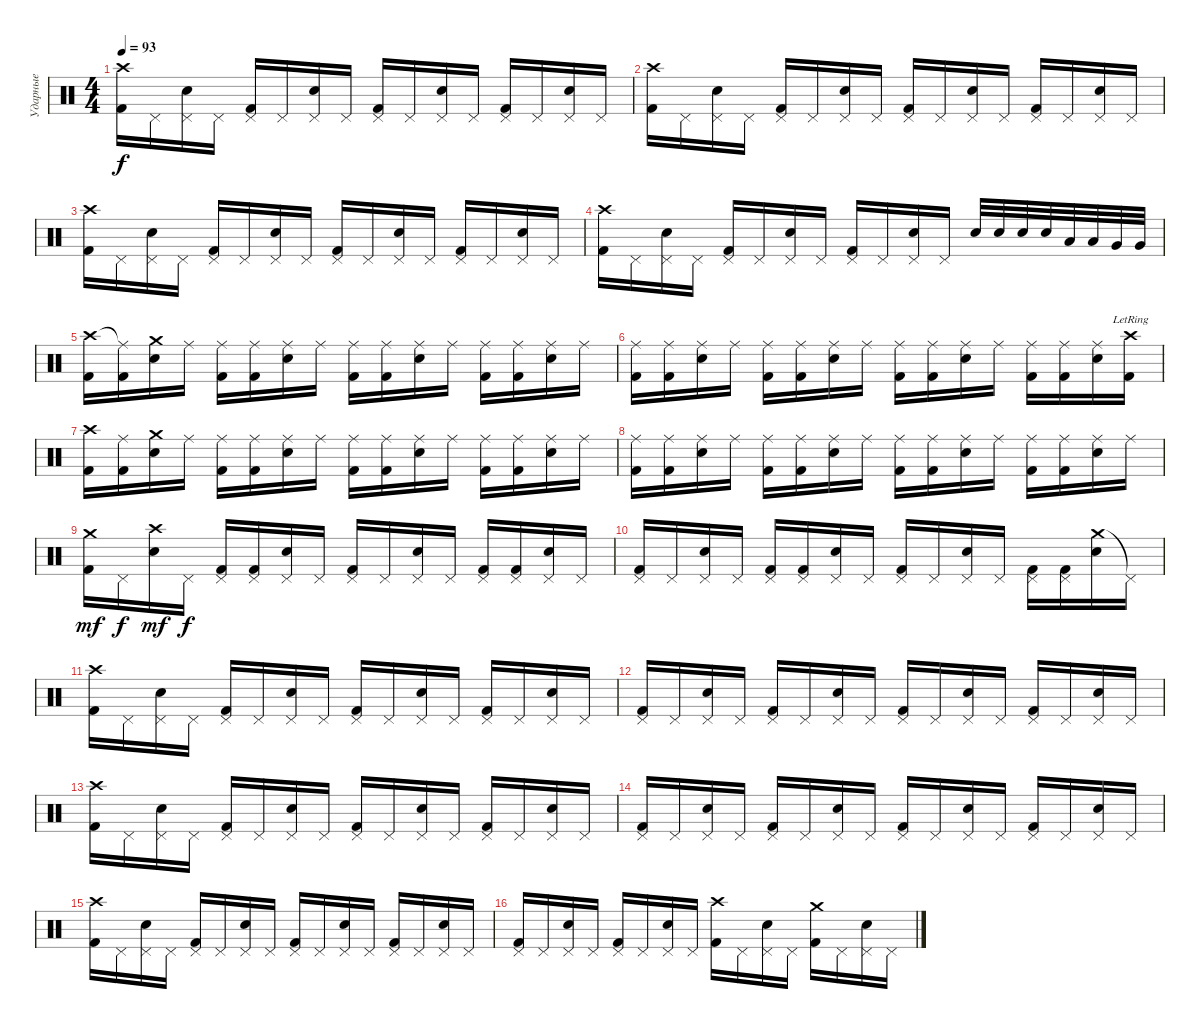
\track ("Ударные" "Ударные") {instrument percussion}
\staff {score}
\articulation defaults
\ts (4 4)
\tempo 93
\clef neutral
\ks c
("Crash high (hit)" "Kick (hit) 2").16{dy f} "Pedal Hi-Hat (hit)".16 ("Pedal Hi-Hat (hit)" "Electric Snare (hit)").16 "Pedal Hi-Hat (hit)".16 ("Pedal Hi-Hat (hit)" "Kick (hit) 2").16 "Pedal Hi-Hat (hit)".16 ("Pedal Hi-Hat (hit)" "Electric Snare (hit)").16 "Pedal Hi-Hat (hit)".16 ("Pedal Hi-Hat (hit)" "Kick (hit) 2").16 "Pedal Hi-Hat (hit)".16 ("Pedal Hi-Hat (hit)" "Electric Snare (hit)").16 "Pedal Hi-Hat (hit)".16 ("Pedal Hi-Hat (hit)" "Kick (hit) 2").16 "Pedal Hi-Hat (hit)".16 ("Pedal Hi-Hat (hit)" "Electric Snare (hit)").16 "Pedal Hi-Hat (hit)".16 |
("Crash high (hit)" "Kick (hit) 2").16 "Pedal Hi-Hat (hit)".16 ("Pedal Hi-Hat (hit)" "Electric Snare (hit)").16 "Pedal Hi-Hat (hit)".16 ("Pedal Hi-Hat (hit)" "Kick (hit) 2").16 "Pedal Hi-Hat (hit)".16 ("Pedal Hi-Hat (hit)" "Electric Snare (hit)").16 "Pedal Hi-Hat (hit)".16 ("Pedal Hi-Hat (hit)" "Kick (hit) 2").16 "Pedal Hi-Hat (hit)".16 ("Pedal Hi-Hat (hit)" "Electric Snare (hit)").16 "Pedal Hi-Hat (hit)".16 ("Pedal Hi-Hat (hit)" "Kick (hit) 2").16 "Pedal Hi-Hat (hit)".16 ("Pedal Hi-Hat (hit)" "Electric Snare (hit)").16 "Pedal Hi-Hat (hit)".16 |
("Crash high (hit)" "Kick (hit) 2").16 "Pedal Hi-Hat (hit)".16 ("Pedal Hi-Hat (hit)" "Electric Snare (hit)").16 "Pedal Hi-Hat (hit)".16 ("Pedal Hi-Hat (hit)" "Kick (hit) 2").16 "Pedal Hi-Hat (hit)".16 ("Pedal Hi-Hat (hit)" "Electric Snare (hit)").16 "Pedal Hi-Hat (hit)".16 ("Pedal Hi-Hat (hit)" "Kick (hit) 2").16 "Pedal Hi-Hat (hit)".16 ("Pedal Hi-Hat (hit)" "Electric Snare (hit)").16 "Pedal Hi-Hat (hit)".16 ("Pedal Hi-Hat (hit)" "Kick (hit) 2").16 "Pedal Hi-Hat (hit)".16 ("Pedal Hi-Hat (hit)" "Electric Snare (hit)").16 "Pedal Hi-Hat (hit)".16 |
("Crash high (hit)" "Kick (hit) 2").16 "Pedal Hi-Hat (hit)".16 ("Pedal Hi-Hat (hit)" "Electric Snare (hit)").16 "Pedal Hi-Hat (hit)".16 ("Pedal Hi-Hat (hit)" "Kick (hit) 2").16 "Pedal Hi-Hat (hit)".16 ("Pedal Hi-Hat (hit)" "Electric Snare (hit)").16 "Pedal Hi-Hat (hit)".16 ("Pedal Hi-Hat (hit)" "Kick (hit) 2").16 "Pedal Hi-Hat (hit)".16 ("Pedal Hi-Hat (hit)" "Electric Snare (hit)").16 "Pedal Hi-Hat (hit)".16 "Electric Snare (hit)".32 "Electric Snare (hit)".32 "Electric Snare (hit)".32 "Electric Snare (hit)".32 "Low Tom (hit)".32 "Low Tom (hit)".32 "Very Low Tom (hit)".32 "Very Low Tom (hit)".32 |
("Crash high (hit)" "Kick (hit) 2").16 ("Ride (middle)"{t} "Kick (hit) 2").16 ("Crash medium (hit)" "Electric Snare (hit)").16 "Ride (middle)".16 ("Ride (middle)" "Kick (hit) 2").16 ("Ride (middle)" "Kick (hit) 2").16 ("Ride (middle)" "Electric Snare (hit)").16 "Ride (middle)".16 ("Ride (middle)" "Kick (hit) 2").16 ("Ride (middle)" "Kick (hit) 2").16 ("Ride (middle)" "Electric Snare (hit)").16 "Ride (middle)".16 ("Ride (middle)" "Kick (hit) 2").16 ("Ride (middle)" "Kick (hit) 2").16 ("Ride (middle)" "Electric Snare (hit)").16 "Ride (middle)".16 |
("Ride (middle)" "Kick (hit) 2").16 ("Ride (middle)" "Kick (hit) 2").16 ("Ride (middle)" "Electric Snare (hit)").16 "Ride (middle)".16 ("Ride (middle)" "Kick (hit) 2").16 ("Ride (middle)" "Kick (hit) 2").16 ("Ride (middle)" "Electric Snare (hit)").16 "Ride (middle)".16 ("Ride (middle)" "Kick (hit) 2").16 ("Ride (middle)" "Kick (hit) 2").16 ("Ride (middle)" "Electric Snare (hit)").16 "Ride (middle)".16 ("Ride (middle)" "Kick (hit) 2").16 ("Ride (middle)" "Kick (hit) 2").16 ("Ride (middle)" "Electric Snare (hit)").16 ("Crash high (hit)"{lr} "Kick (hit) 2").16 |
("Crash high (hit)" "Kick (hit) 2").16 ("Ride (middle)" "Kick (hit) 2").16 ("Crash medium (hit)" "Electric Snare (hit)").16 "Ride (middle)".16 ("Ride (middle)" "Kick (hit) 2").16 ("Ride (middle)" "Kick (hit) 2").16 ("Ride (middle)" "Electric Snare (hit)").16 "Ride (middle)".16 ("Ride (middle)" "Kick (hit) 2").16 ("Ride (middle)" "Kick (hit) 2").16 ("Ride (middle)" "Electric Snare (hit)").16 "Ride (middle)".16 ("Ride (middle)" "Kick (hit) 2").16 ("Ride (middle)" "Kick (hit) 2").16 ("Ride (middle)" "Electric Snare (hit)").16 "Ride (middle)".16 |
("Ride (middle)" "Kick (hit) 2").16 ("Ride (middle)" "Kick (hit) 2").16 ("Ride (middle)" "Electric Snare (hit)").16 "Ride (middle)".16 ("Ride (middle)" "Kick (hit) 2").16 ("Ride (middle)" "Kick (hit) 2").16 ("Ride (middle)" "Electric Snare (hit)").16 "Ride (middle)".16 ("Ride (middle)" "Kick (hit) 2").16 ("Ride (middle)" "Kick (hit) 2").16 ("Ride (middle)" "Electric Snare (hit)").16 "Ride (middle)".16 ("Ride (middle)" "Kick (hit) 2").16 ("Ride (middle)" "Kick (hit) 2").16 ("Ride (middle)" "Electric Snare (hit)").16 "Ride (middle)".16 |
("Crash medium (hit)" "Kick (hit) 2").16{dy mf} "Pedal Hi-Hat (hit)".16{dy f} ("Crash high (hit)" "Electric Snare (hit)").16{dy mf} "Pedal Hi-Hat (hit)".16{dy f} ("Pedal Hi-Hat (hit)" "Kick (hit) 2").16 ("Pedal Hi-Hat (hit)" "Kick (hit) 2").16 ("Pedal Hi-Hat (hit)" "Electric Snare (hit)").16 "Pedal Hi-Hat (hit)".16 ("Pedal Hi-Hat (hit)" "Kick (hit) 2").16 "Pedal Hi-Hat (hit)".16 ("Pedal Hi-Hat (hit)" "Electric Snare (hit)").16 "Pedal Hi-Hat (hit)".16 ("Pedal Hi-Hat (hit)" "Kick (hit) 2").16 ("Pedal Hi-Hat (hit)" "Kick (hit) 2").16 ("Pedal Hi-Hat (hit)" "Electric Snare (hit)").16 "Pedal Hi-Hat (hit)".16 |
("Pedal Hi-Hat (hit)" "Kick (hit) 2").16 "Pedal Hi-Hat (hit)".16 ("Pedal Hi-Hat (hit)" "Electric Snare (hit)").16 "Pedal Hi-Hat (hit)".16 ("Pedal Hi-Hat (hit)" "Kick (hit) 2").16 ("Pedal Hi-Hat (hit)" "Kick (hit) 2").16 ("Pedal Hi-Hat (hit)" "Electric Snare (hit)").16 "Pedal Hi-Hat (hit)".16 ("Pedal Hi-Hat (hit)" "Kick (hit) 2").16 "Pedal Hi-Hat (hit)".16 ("Pedal Hi-Hat (hit)" "Electric Snare (hit)").16 "Pedal Hi-Hat (hit)".16 ("Pedal Hi-Hat (hit)" "Kick (hit) 2").16 ("Pedal Hi-Hat (hit)" "Kick (hit) 2").16 ("Crash medium (hit)" "Electric Snare (hit)").16 "Pedal Hi-Hat (hit)"{t}.16 |
("Crash high (hit)" "Kick (hit) 2").16 "Pedal Hi-Hat (hit)".16 ("Pedal Hi-Hat (hit)" "Electric Snare (hit)").16 "Pedal Hi-Hat (hit)".16 ("Pedal Hi-Hat (hit)" "Kick (hit) 2").16 "Pedal Hi-Hat (hit)".16 ("Pedal Hi-Hat (hit)" "Electric Snare (hit)").16 "Pedal Hi-Hat (hit)".16 ("Pedal Hi-Hat (hit)" "Kick (hit) 2").16 "Pedal Hi-Hat (hit)".16 ("Pedal Hi-Hat (hit)" "Electric Snare (hit)").16 "Pedal Hi-Hat (hit)".16 ("Pedal Hi-Hat (hit)" "Kick (hit) 2").16 "Pedal Hi-Hat (hit)".16 ("Pedal Hi-Hat (hit)" "Electric Snare (hit)").16 "Pedal Hi-Hat (hit)".16 |
("Pedal Hi-Hat (hit)" "Kick (hit) 2").16 "Pedal Hi-Hat (hit)".16 ("Pedal Hi-Hat (hit)" "Electric Snare (hit)").16 "Pedal Hi-Hat (hit)".16 ("Pedal Hi-Hat (hit)" "Kick (hit) 2").16 "Pedal Hi-Hat (hit)".16 ("Pedal Hi-Hat (hit)" "Electric Snare (hit)").16 "Pedal Hi-Hat (hit)".16 ("Pedal Hi-Hat (hit)" "Kick (hit) 2").16 "Pedal Hi-Hat (hit)".16 ("Pedal Hi-Hat (hit)" "Electric Snare (hit)").16 "Pedal Hi-Hat (hit)".16 ("Pedal Hi-Hat (hit)" "Kick (hit) 2").16 "Pedal Hi-Hat (hit)".16 ("Pedal Hi-Hat (hit)" "Electric Snare (hit)").16 "Pedal Hi-Hat (hit)".16 |
("Crash high (hit)" "Kick (hit) 2").16 "Pedal Hi-Hat (hit)".16 ("Pedal Hi-Hat (hit)" "Electric Snare (hit)").16 "Pedal Hi-Hat (hit)".16 ("Pedal Hi-Hat (hit)" "Kick (hit) 2").16 "Pedal Hi-Hat (hit)".16 ("Pedal Hi-Hat (hit)" "Electric Snare (hit)").16 "Pedal Hi-Hat (hit)".16 ("Pedal Hi-Hat (hit)" "Kick (hit) 2").16 "Pedal Hi-Hat (hit)".16 ("Pedal Hi-Hat (hit)" "Electric Snare (hit)").16 "Pedal Hi-Hat (hit)".16 ("Pedal Hi-Hat (hit)" "Kick (hit) 2").16 "Pedal Hi-Hat (hit)".16 ("Pedal Hi-Hat (hit)" "Electric Snare (hit)").16 "Pedal Hi-Hat (hit)".16 |
("Pedal Hi-Hat (hit)" "Kick (hit) 2").16 "Pedal Hi-Hat (hit)".16 ("Pedal Hi-Hat (hit)" "Electric Snare (hit)").16 "Pedal Hi-Hat (hit)".16 ("Pedal Hi-Hat (hit)" "Kick (hit) 2").16 "Pedal Hi-Hat (hit)".16 ("Pedal Hi-Hat (hit)" "Electric Snare (hit)").16 "Pedal Hi-Hat (hit)".16 ("Pedal Hi-Hat (hit)" "Kick (hit) 2").16 "Pedal Hi-Hat (hit)".16 ("Pedal Hi-Hat (hit)" "Electric Snare (hit)").16 "Pedal Hi-Hat (hit)".16 ("Pedal Hi-Hat (hit)" "Kick (hit) 2").16 "Pedal Hi-Hat (hit)".16 ("Pedal Hi-Hat (hit)" "Electric Snare (hit)").16 "Pedal Hi-Hat (hit)".16 |
("Crash high (hit)" "Kick (hit) 2").16 "Pedal Hi-Hat (hit)".16 ("Pedal Hi-Hat (hit)" "Electric Snare (hit)").16 "Pedal Hi-Hat (hit)".16 ("Pedal Hi-Hat (hit)" "Kick (hit) 2").16 "Pedal Hi-Hat (hit)".16 ("Pedal Hi-Hat (hit)" "Electric Snare (hit)").16 "Pedal Hi-Hat (hit)".16 ("Pedal Hi-Hat (hit)" "Kick (hit) 2").16 "Pedal Hi-Hat (hit)".16 ("Pedal Hi-Hat (hit)" "Electric Snare (hit)").16 "Pedal Hi-Hat (hit)".16 ("Pedal Hi-Hat (hit)" "Kick (hit) 2").16 "Pedal Hi-Hat (hit)".16 ("Pedal Hi-Hat (hit)" "Electric Snare (hit)").16 "Pedal Hi-Hat (hit)".16 |
("Pedal Hi-Hat (hit)" "Kick (hit) 2").16 "Pedal Hi-Hat (hit)".16 ("Pedal Hi-Hat (hit)" "Electric Snare (hit)").16 "Pedal Hi-Hat (hit)".16 ("Pedal Hi-Hat (hit)" "Kick (hit) 2").16 "Pedal Hi-Hat (hit)".16 ("Pedal Hi-Hat (hit)" "Electric Snare (hit)").16 "Pedal Hi-Hat (hit)".16 ("Crash high (hit)" "Kick (hit) 2").16 "Pedal Hi-Hat (hit)".16 ("Pedal Hi-Hat (hit)" "Electric Snare (hit)").16 "Pedal Hi-Hat (hit)".16 ("Crash medium (hit)" "Kick (hit) 2").16 "Pedal Hi-Hat (hit)".16 ("Pedal Hi-Hat (hit)" "Electric Snare (hit)").16 "Pedal Hi-Hat (hit)".16
